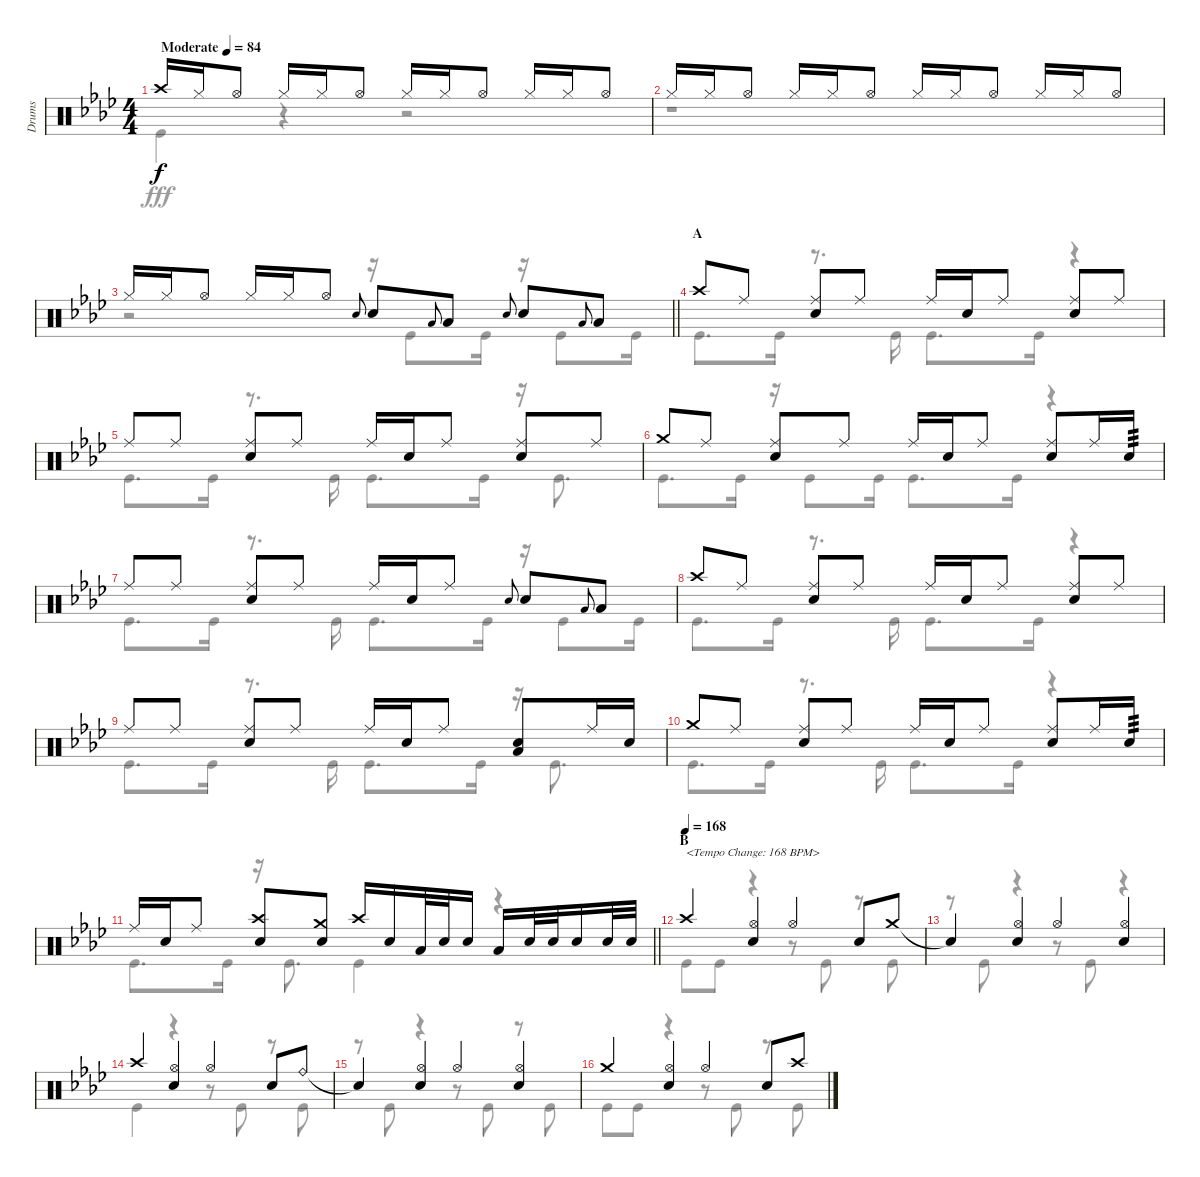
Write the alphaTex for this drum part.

\track ("Drums" "Drums") {instrument percussion}
\staff {score}
\articulation defaults
\voice
\ts (4 4)
\tempo (84 "Moderate")
\clef neutral
\ks ab "Crash high (hit)".16{dy f} "Hi-Hat (closed)".16 "Hi-Hat (open)".8 "Hi-Hat (closed)".16 "Hi-Hat (closed)".16 "Hi-Hat (open)".8 "Hi-Hat (closed)".16 "Hi-Hat (closed)".16 "Hi-Hat (open)".8 "Hi-Hat (closed)".16 "Hi-Hat (closed)".16 "Hi-Hat (open)".8
|
"Hi-Hat (closed)".16 "Hi-Hat (closed)".16 "Hi-Hat (open)".8 "Hi-Hat (closed)".16 "Hi-Hat (closed)".16 "Hi-Hat (open)".8 "Hi-Hat (closed)".16 "Hi-Hat (closed)".16 "Hi-Hat (open)".8 "Hi-Hat (closed)".16 "Hi-Hat (closed)".16 "Hi-Hat (open)".8 |
\barLineRight lightlight "Hi-Hat (closed)".16 "Hi-Hat (closed)".16 "Hi-Hat (open)".8 "Hi-Hat (closed)".16 "Hi-Hat (closed)".16 "Hi-Hat (open)".8 "Snare (hit) 2".8{gr onbeat} "Snare (hit) 2".8 "Low Tom (hit)".8{gr onbeat} "Low Tom (hit)".8 "Snare (hit) 2".8{gr onbeat} "Snare (hit) 2".8 "Low Tom (hit)".8{gr onbeat} "Low Tom (hit)".8
|
\section ("" "A")
"Crash high (hit)".8 "Ride (middle)".8 ("Ride (middle)" "Snare (hit) 2").8 "Ride (middle)".8 "Ride (middle)".16 "Snare (hit) 2".16 "Ride (middle)".8 ("Ride (middle)" "Snare (hit) 2").8 "Ride (middle)".8 |
"Ride (middle)".8 "Ride (middle)".8 ("Ride (middle)" "Snare (hit) 2").8 "Ride (middle)".8 "Ride (middle)".16 "Snare (hit) 2".16 "Ride (middle)".8 ("Ride (middle)" "Snare (hit) 2").8 "Ride (middle)".8 |
"Crash medium (hit)".8 "Ride (middle)".8 ("Ride (middle)" "Snare (hit) 2").8 "Ride (middle)".8 "Ride (middle)".16 "Snare (hit) 2".16 "Ride (middle)".8 ("Ride (middle)" "Snare (hit) 2").8 "Ride (middle)".16 "Snare (hit) 2".16{tp 3} |
"Ride (middle)".8 "Ride (middle)".8 ("Ride (middle)" "Snare (hit) 2").8 "Ride (middle)".8 "Ride (middle)".16 "Snare (hit) 2".16 "Ride (middle)".8 "Snare (hit) 2".8{gr onbeat} "Snare (hit) 2".8 "Low Tom (hit)".8{gr onbeat} "Low Tom (hit)".8 |
"Crash high (hit)".8 "Ride (middle)".8 ("Ride (middle)" "Snare (hit) 2").8 "Ride (middle)".8 "Ride (middle)".16 "Snare (hit) 2".16 "Ride (middle)".8 ("Ride (middle)" "Snare (hit) 2").8 "Ride (middle)".8 |
"Ride (middle)".8 "Ride (middle)".8 ("Ride (middle)" "Snare (hit) 2").8 "Ride (middle)".8 "Ride (middle)".16 "Snare (hit) 2".16 "Ride (middle)".8 ("Snare (hit) 2" "Low Tom (hit)").8 "Ride (middle)".16 "Snare (hit) 2".16 |
"Crash medium (hit)".8 "Ride (middle)".8 ("Ride (middle)" "Snare (hit) 2").8 "Ride (middle)".8 "Ride (middle)".16 "Snare (hit) 2".16 "Ride (middle)".8 ("Ride (middle)" "Snare (hit) 2").8 "Ride (middle)".16 "Snare (hit) 2".16{tp 3} |
\barLineRight lightlight "Ride (middle)".16 "Snare (hit) 2".16 "Ride (middle)".8
("Crash high (hit)" "Snare (hit) 2").8 ("Crash medium (hit)" "Snare (hit) 2").8 "Crash high (hit)".16 "Snare (hit) 2".16 "Low Tom (hit)".32 "Snare (hit) 2".32 "Snare (hit) 2".16 "Low Tom (hit)".16 "Snare (hit) 2".32 "Snare (hit) 2".32 "Snare (hit) 2".16 "Snare (hit) 2".32 "Snare (hit) 2".32 |
\section ("" "B")
\tempo (168)
"Crash high (hit)".4{txt "<Tempo Change: 168 BPM>"} ("Hi-Hat (open)" "Snare (hit) 2").4 "Hi-Hat (open)".4 "Snare (hit) 2".8 "Crash medium (hit)".8 |
"Snare (hit)"{t}.4 ("Hi-Hat (open)" "Snare (hit) 2").4 "Hi-Hat (open)".4 ("Hi-Hat (open)" "Snare (hit) 2").4 |
"Crash high (hit)".4 ("Hi-Hat (open)" "Snare (hit) 2").4 "Hi-Hat (open)".4 "Snare (hit) 2".8 "Ride (bell)".8 |
"Snare (hit)"{t}.4 ("Hi-Hat (open)" "Snare (hit) 2").4 "Hi-Hat (open)".4 ("Hi-Hat (open)" "Snare (hit) 2").4 |
"Crash medium (hit)".4 ("Hi-Hat (open)" "Snare (hit) 2").4 "Hi-Hat (open)".4 "Snare (hit) 2".8 "Crash high (hit)".8
\voice
\clef neutral
\ottava regular
\simile none
\ks ab "Kick (hit)".4{dy fff}
r.4 r.2 |
r.1 |
\barLineRight lightlight
r.2 r.16 "Kick (hit)".8 "Kick (hit)".16 r.16 "Kick (hit)".8 "Kick (hit)".16 |
"Kick (hit)".8{d} "Kick (hit)".16 r.8{d} "Kick (hit)".16 "Kick (hit)".8{d} "Kick (hit)".16 r.4 |
"Kick (hit)".8{d} "Kick (hit)".16 r.8{d} "Kick (hit)".16 "Kick (hit)".8{d} "Kick (hit)".16 r.16 "Kick (hit)".8{d} |
"Kick (hit)".8{d} "Kick (hit)".16 r.16 "Kick (hit)".8 "Kick (hit)".16 "Kick (hit)".8{d} "Kick (hit)".16 r.4 |
"Kick (hit)".8{d} "Kick (hit)".16 r.8{d} "Kick (hit)".16 "Kick (hit)".8{d} "Kick (hit)".16 r.16 "Kick (hit)".8 "Kick (hit)".16 |
"Kick (hit)".8{d} "Kick (hit)".16 r.8{d} "Kick (hit)".16 "Kick (hit)".8{d} "Kick (hit)".16 r.4 |
"Kick (hit)".8{d} "Kick (hit)".16 r.8{d} "Kick (hit)".16 "Kick (hit)".8{d} "Kick (hit)".16 r.16 "Kick (hit)".8{d} |
"Kick (hit)".8{d} "Kick (hit)".16 r.8{d} "Kick (hit)".16 "Kick (hit)".8{d} "Kick (hit)".16 r.4 |
\barLineRight lightlight "Kick (hit)".8{d} "Kick (hit)".16
r.16 "Kick (hit)".8{d} "Kick (hit)".4 r.4 |
"Kick (hit)".8 "Kick (hit)".8 r.4 r.8 "Kick (hit)".8 r.8 "Kick (hit)".8 |
r.8 "Kick (hit)".8 r.4 r.8 "Kick (hit)".8 r.4 |
"Kick (hit)".4 r.4 r.8 "Kick (hit)".8 r.8 "Kick (hit)".8 |
r.8 "Kick (hit)".8 r.4 r.8 "Kick (hit)".8 r.8 "Kick (hit)".8 |
"Kick (hit)".8 "Kick (hit)".8 r.4 r.8 "Kick (hit)".8 r.8 "Kick (hit)".8
